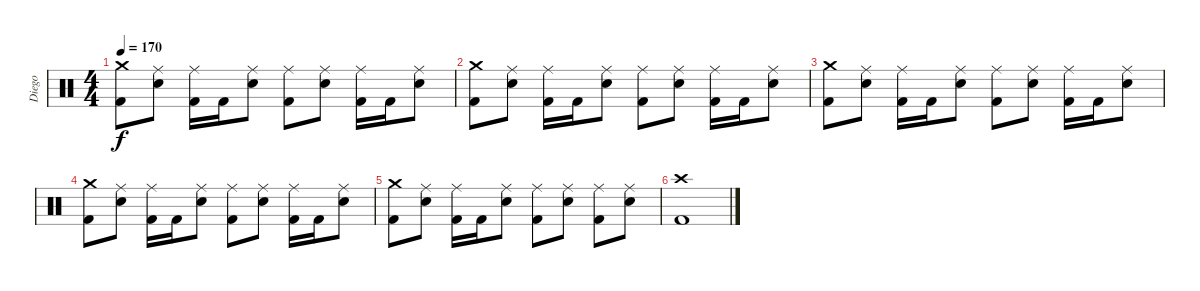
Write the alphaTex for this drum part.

\track ("Diego" "Diego") {instrument percussion}
\staff {score}
\articulation defaults
\ts (4 4)
\tempo 170
\clef neutral
\ks c
("Crash medium (hit)" "Kick (hit) 2").8{dy f} ("Ride (middle)" "Electric Snare (hit)").8 ("Ride (middle)" "Kick (hit) 2").16 "Kick (hit) 2".16 ("Ride (middle)" "Electric Snare (hit)").8 ("Ride (middle)" "Kick (hit) 2").8 ("Ride (middle)" "Electric Snare (hit)").8 ("Ride (middle)" "Kick (hit) 2").16 "Kick (hit) 2".16 ("Ride (middle)" "Electric Snare (hit)").8 |
("Crash medium (hit)" "Kick (hit) 2").8 ("Ride (middle)" "Electric Snare (hit)").8 ("Ride (middle)" "Kick (hit) 2").16 "Kick (hit) 2".16 ("Ride (middle)" "Electric Snare (hit)").8 ("Ride (middle)" "Kick (hit) 2").8 ("Ride (middle)" "Electric Snare (hit)").8 ("Ride (middle)" "Kick (hit) 2").16 "Kick (hit) 2".16 ("Ride (middle)" "Electric Snare (hit)").8 |
("Crash medium (hit)" "Kick (hit) 2").8 ("Ride (middle)" "Electric Snare (hit)").8 ("Ride (middle)" "Kick (hit) 2").16 "Kick (hit) 2".16 ("Ride (middle)" "Electric Snare (hit)").8 ("Ride (middle)" "Kick (hit) 2").8 ("Ride (middle)" "Electric Snare (hit)").8 ("Ride (middle)" "Kick (hit) 2").16 "Kick (hit) 2".16 ("Ride (middle)" "Electric Snare (hit)").8 |
("Crash medium (hit)" "Kick (hit) 2").8 ("Ride (middle)" "Electric Snare (hit)").8 ("Ride (middle)" "Kick (hit) 2").16 "Kick (hit) 2".16 ("Ride (middle)" "Electric Snare (hit)").8 ("Ride (middle)" "Kick (hit) 2").8 ("Ride (middle)" "Electric Snare (hit)").8 ("Ride (middle)" "Kick (hit) 2").16 "Kick (hit) 2".16 ("Ride (middle)" "Electric Snare (hit)").8 |
("Crash medium (hit)" "Kick (hit) 2").8 ("Ride (middle)" "Electric Snare (hit)").8 ("Ride (middle)" "Kick (hit) 2").16 "Kick (hit) 2".16 ("Ride (middle)" "Electric Snare (hit)").8 ("Ride (middle)" "Kick (hit) 2").8 ("Ride (middle)" "Electric Snare (hit)").8 ("Ride (middle)" "Kick (hit) 2").8 ("Ride (middle)" "Electric Snare (hit)").8 |
("Crash high (hit)" "Kick (hit) 2").1
